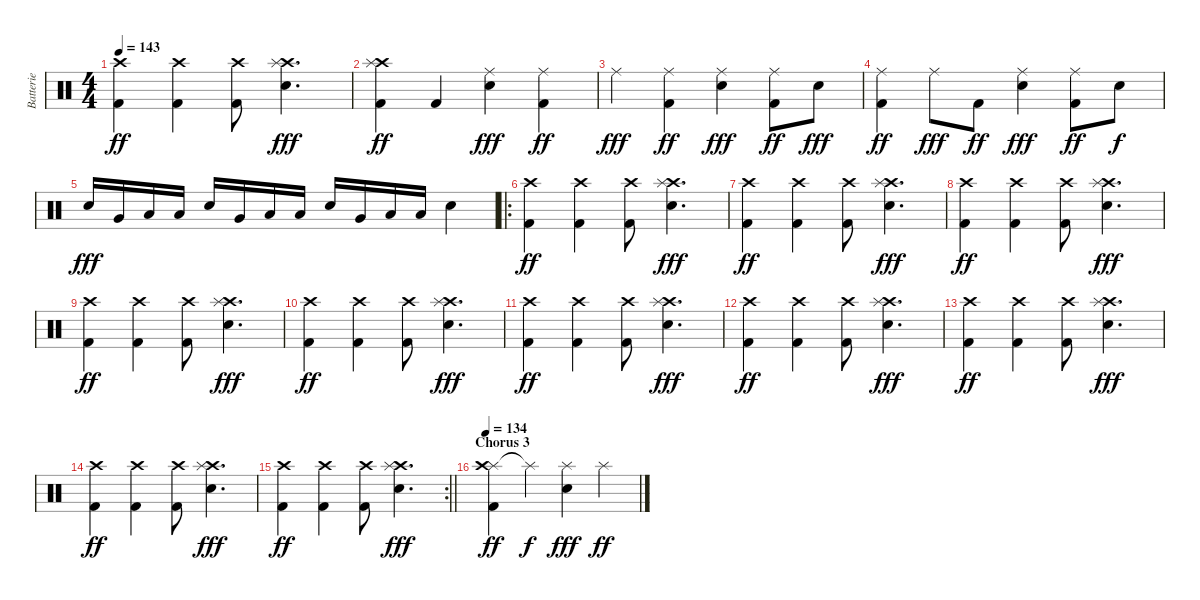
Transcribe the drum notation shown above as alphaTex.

\track ("Batterie" "Batterie") {instrument percussion}
\staff {score}
\articulation defaults
\ts (4 4)
\tempo 143
\clef neutral
\ks c
("Crash high (hit)" "Kick (hit) 2").4{dy ff} ("Crash high (hit)" "Kick (hit) 2").4 ("Crash high (hit)" "Kick (hit) 2").8 ("Crash high (hit)" "Splash (hit)" "Electric Snare (hit)").4{d dy fff} |
("Crash high (hit)" "Splash (hit)" "Kick (hit) 2").4{dy ff} "Kick (hit) 2".4 ("Ride (middle)" "Electric Snare (hit)").4{dy fff} ("Ride (middle)" "Kick (hit) 2").4{dy ff} |
"Ride (middle)".4{dy fff} ("Ride (middle)" "Kick (hit) 2").4{dy ff} ("Ride (middle)" "Electric Snare (hit)").4{dy fff} ("Ride (middle)" "Kick (hit) 2").8{dy ff} "Electric Snare (hit)".8{dy fff} |
("Ride (middle)" "Kick (hit) 2").4{dy ff} "Ride (middle)".8{dy fff} "Kick (hit) 2".8{dy ff} ("Ride (middle)" "Electric Snare (hit)").4{dy fff} ("Ride (middle)" "Kick (hit) 2").8{dy ff} "Electric Snare (hit)".8{dy f} |
"Electric Snare (hit)".16{dy fff} "Very Low Tom (hit)".16 "Low Floor Tom (hit)".16 "Low Floor Tom (hit)".16 "Electric Snare (hit)".16 "Very Low Tom (hit)".16 "Low Floor Tom (hit)".16 "Low Floor Tom (hit)".16 "Electric Snare (hit)".16 "Very Low Tom (hit)".16 "Low Floor Tom (hit)".16 "Low Floor Tom (hit)".16 "Electric Snare (hit)".4 |
\ro
("Crash high (hit)" "Kick (hit) 2").4{dy ff} ("Crash high (hit)" "Kick (hit) 2").4 ("Crash high (hit)" "Kick (hit) 2").8 ("Crash high (hit)" "Splash (hit)" "Electric Snare (hit)").4{d dy fff} |
("Crash high (hit)" "Kick (hit) 2").4{dy ff} ("Crash high (hit)" "Kick (hit) 2").4 ("Crash high (hit)" "Kick (hit) 2").8 ("Crash high (hit)" "Splash (hit)" "Electric Snare (hit)").4{d dy fff} |
("Crash high (hit)" "Kick (hit) 2").4{dy ff} ("Crash high (hit)" "Kick (hit) 2").4 ("Crash high (hit)" "Kick (hit) 2").8 ("Crash high (hit)" "Splash (hit)" "Electric Snare (hit)").4{d dy fff} |
("Crash high (hit)" "Kick (hit) 2").4{dy ff} ("Crash high (hit)" "Kick (hit) 2").4 ("Crash high (hit)" "Kick (hit) 2").8 ("Crash high (hit)" "Splash (hit)" "Electric Snare (hit)").4{d dy fff} |
("Crash high (hit)" "Kick (hit) 2").4{dy ff} ("Crash high (hit)" "Kick (hit) 2").4 ("Crash high (hit)" "Kick (hit) 2").8 ("Crash high (hit)" "Splash (hit)" "Electric Snare (hit)").4{d dy fff} |
("Crash high (hit)" "Kick (hit) 2").4{dy ff} ("Crash high (hit)" "Kick (hit) 2").4 ("Crash high (hit)" "Kick (hit) 2").8 ("Crash high (hit)" "Splash (hit)" "Electric Snare (hit)").4{d dy fff} |
("Crash high (hit)" "Kick (hit) 2").4{dy ff} ("Crash high (hit)" "Kick (hit) 2").4 ("Crash high (hit)" "Kick (hit) 2").8 ("Crash high (hit)" "Splash (hit)" "Electric Snare (hit)").4{d dy fff} |
("Crash high (hit)" "Kick (hit) 2").4{dy ff} ("Crash high (hit)" "Kick (hit) 2").4 ("Crash high (hit)" "Kick (hit) 2").8 ("Crash high (hit)" "Splash (hit)" "Electric Snare (hit)").4{d dy fff} |
("Crash high (hit)" "Kick (hit) 2").4{dy ff} ("Crash high (hit)" "Kick (hit) 2").4 ("Crash high (hit)" "Kick (hit) 2").8 ("Crash high (hit)" "Splash (hit)" "Electric Snare (hit)").4{d dy fff} |
\rc 2
\barLineRight lightlight
("Crash high (hit)" "Kick (hit) 2").4{dy ff} ("Crash high (hit)" "Kick (hit) 2").4 ("Crash high (hit)" "Kick (hit) 2").8 ("Crash high (hit)" "Splash (hit)" "Electric Snare (hit)").4{d dy fff} |
\section ("" "Chorus 3")
\tempo 134
("Splash (hit)" "Crash high (hit)" "Kick (hit) 2").4{dy ff} "Splash (hit)"{t}.4{dy f} ("Splash (hit)" "Electric Snare (hit)").4{dy fff} "Splash (hit)".4{dy ff}
